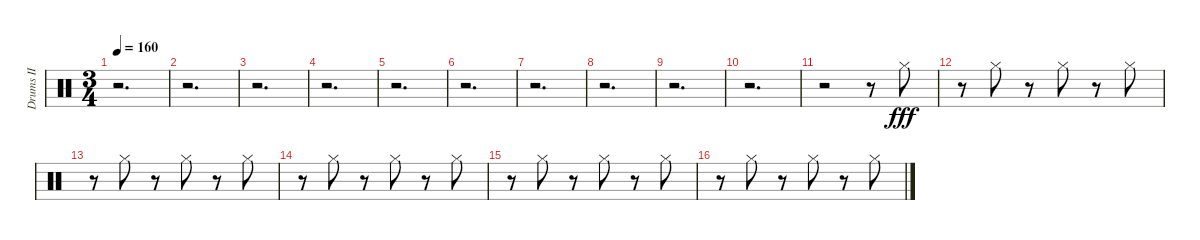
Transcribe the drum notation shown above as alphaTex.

\track ("Drums II" "Drums II") {instrument percussion}
\staff {score}
\articulation defaults
\ts (3 4)
\tempo 160
\clef neutral
\ks c
r.2{d dy fff} |
r.2{d} |
r.2{d} |
r.2{d} |
r.2{d} |
r.2{d} |
r.2{d} |
r.2{d} |
r.2{d} |
r.2{d} |
r.2 r.8 "Hi-Hat (closed)".8 |
r.8 "Hi-Hat (closed)".8 r.8 "Hi-Hat (closed)".8 r.8 "Hi-Hat (closed)".8 |
r.8 "Hi-Hat (closed)".8 r.8 "Hi-Hat (closed)".8 r.8 "Hi-Hat (closed)".8 |
r.8 "Hi-Hat (closed)".8 r.8 "Hi-Hat (closed)".8 r.8 "Hi-Hat (closed)".8 |
r.8 "Hi-Hat (closed)".8 r.8 "Hi-Hat (closed)".8 r.8 "Hi-Hat (closed)".8 |
r.8 "Hi-Hat (closed)".8 r.8 "Hi-Hat (closed)".8 r.8 "Hi-Hat (closed)".8
